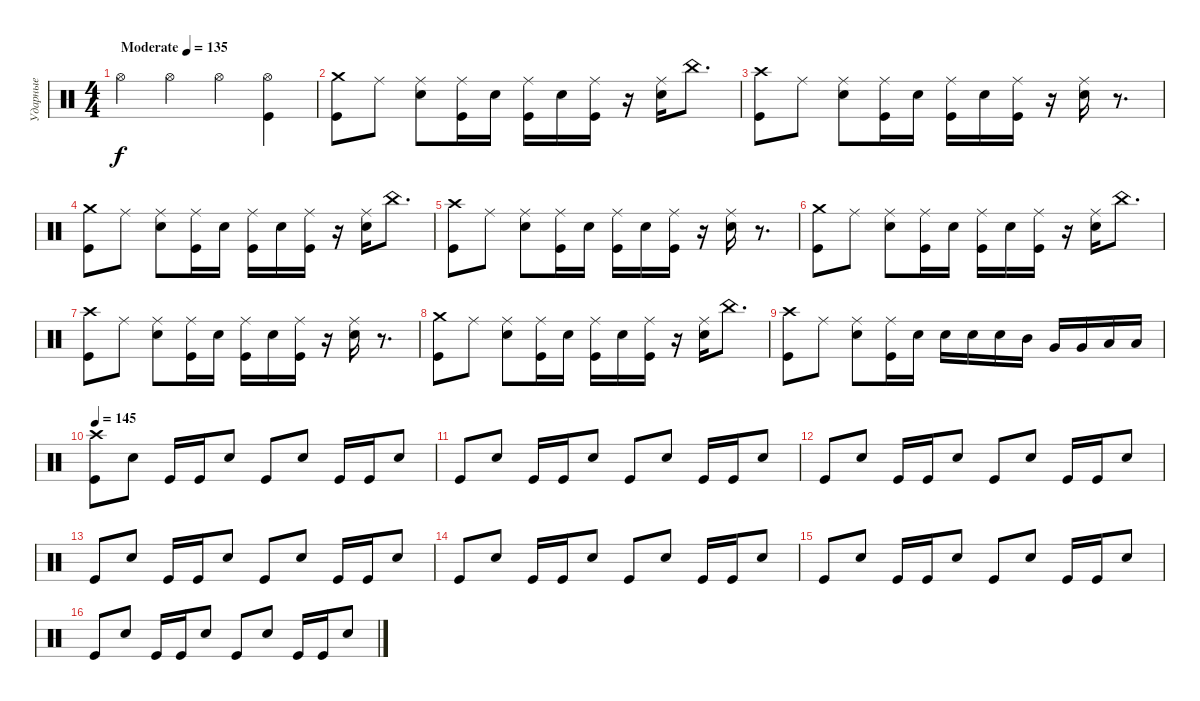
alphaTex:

\track ("Ударные" "Ударные") {instrument percussion}
\staff {score}
\articulation defaults
\ts (4 4)
\tempo (135 "Moderate")
\clef neutral
\ks c "Hi-Hat (open)".4{dy f} "Hi-Hat (open)".4 "Hi-Hat (open)".4
("Hi-Hat (open)" "Kick (hit)").4 |
("Crash medium (hit)" "Kick (hit)").8 "Ride (middle)".8 ("Ride (middle)" "Electric Snare (hit)").8 ("Kick (hit)" "Ride (middle)").16 "Electric Snare (hit)".16 ("Ride (middle)" "Kick (hit)").16 "Electric Snare (hit)".16 ("Kick (hit)" "Ride (middle)").16 r.16 ("Ride (middle)" "Electric Snare (hit)").16 "China (hit)".8{d} |
("Crash high (hit)" "Kick (hit)").8 "Ride (middle)".8 ("Ride (middle)" "Electric Snare (hit)").8 ("Kick (hit)" "Ride (middle)").16 "Electric Snare (hit)".16 ("Ride (middle)" "Kick (hit)").16 "Electric Snare (hit)".16 ("Kick (hit)" "Ride (middle)").16 r.16 ("Ride (middle)" "Electric Snare (hit)").16 r.8{d} |
("Crash medium (hit)" "Kick (hit)").8 "Ride (middle)".8 ("Ride (middle)" "Electric Snare (hit)").8 ("Kick (hit)" "Ride (middle)").16 "Electric Snare (hit)".16 ("Ride (middle)" "Kick (hit)").16 "Electric Snare (hit)".16 ("Kick (hit)" "Ride (middle)").16 r.16 ("Ride (middle)" "Electric Snare (hit)").16 "China (hit)".8{d} |
("Crash high (hit)" "Kick (hit)").8 "Ride (middle)".8 ("Ride (middle)" "Electric Snare (hit)").8 ("Kick (hit)" "Ride (middle)").16 "Electric Snare (hit)".16 ("Ride (middle)" "Kick (hit)").16 "Electric Snare (hit)".16 ("Kick (hit)" "Ride (middle)").16 r.16 ("Ride (middle)" "Electric Snare (hit)").16 r.8{d} |
("Crash medium (hit)" "Kick (hit)").8 "Ride (middle)".8 ("Ride (middle)" "Electric Snare (hit)").8 ("Kick (hit)" "Ride (middle)").16 "Electric Snare (hit)".16 ("Ride (middle)" "Kick (hit)").16 "Electric Snare (hit)".16 ("Kick (hit)" "Ride (middle)").16 r.16 ("Ride (middle)" "Electric Snare (hit)").16 "China (hit)".8{d} |
("Crash high (hit)" "Kick (hit)").8 "Ride (middle)".8 ("Ride (middle)" "Electric Snare (hit)").8 ("Kick (hit)" "Ride (middle)").16 "Electric Snare (hit)".16 ("Ride (middle)" "Kick (hit)").16 "Electric Snare (hit)".16 ("Kick (hit)" "Ride (middle)").16 r.16 ("Ride (middle)" "Electric Snare (hit)").16 r.8{d} |
("Crash medium (hit)" "Kick (hit)").8 "Ride (middle)".8 ("Ride (middle)" "Electric Snare (hit)").8 ("Kick (hit)" "Ride (middle)").16 "Electric Snare (hit)".16 ("Ride (middle)" "Kick (hit)").16 "Electric Snare (hit)".16 ("Kick (hit)" "Ride (middle)").16 r.16 ("Ride (middle)" "Electric Snare (hit)").16 "China (hit)".8{d} |
("Crash high (hit)" "Kick (hit)").8 "Ride (middle)".8 ("Ride (middle)" "Electric Snare (hit)").8 ("Kick (hit)" "Ride (middle)").16 "Electric Snare (hit)".16 "Electric Snare (hit)".16 "Electric Snare (hit)".16 "Electric Snare (hit)".16 "Mid Tom (hit)".16 "Very Low Tom (hit)".16 "Very Low Tom (hit)".16 "Low Floor Tom (hit)".16 "Low Floor Tom (hit)".16 |
\tempo 145
("Crash high (hit)" "Kick (hit)").8 "Electric Snare (hit)".8 "Kick (hit)".16 "Kick (hit)".16 "Electric Snare (hit)".8 "Kick (hit)".8 "Electric Snare (hit)".8 "Kick (hit)".16 "Kick (hit)".16 "Electric Snare (hit)".8 |
"Kick (hit)".8 "Electric Snare (hit)".8 "Kick (hit)".16 "Kick (hit)".16 "Electric Snare (hit)".8 "Kick (hit)".8 "Electric Snare (hit)".8 "Kick (hit)".16 "Kick (hit)".16 "Electric Snare (hit)".8 |
"Kick (hit)".8 "Electric Snare (hit)".8 "Kick (hit)".16 "Kick (hit)".16 "Electric Snare (hit)".8 "Kick (hit)".8 "Electric Snare (hit)".8 "Kick (hit)".16 "Kick (hit)".16 "Electric Snare (hit)".8 |
"Kick (hit)".8 "Electric Snare (hit)".8 "Kick (hit)".16 "Kick (hit)".16 "Electric Snare (hit)".8 "Kick (hit)".8 "Electric Snare (hit)".8 "Kick (hit)".16 "Kick (hit)".16 "Electric Snare (hit)".8 |
"Kick (hit)".8 "Electric Snare (hit)".8 "Kick (hit)".16 "Kick (hit)".16 "Electric Snare (hit)".8 "Kick (hit)".8 "Electric Snare (hit)".8 "Kick (hit)".16 "Kick (hit)".16 "Electric Snare (hit)".8 |
"Kick (hit)".8 "Electric Snare (hit)".8 "Kick (hit)".16 "Kick (hit)".16 "Electric Snare (hit)".8 "Kick (hit)".8 "Electric Snare (hit)".8 "Kick (hit)".16 "Kick (hit)".16 "Electric Snare (hit)".8 |
"Kick (hit)".8 "Electric Snare (hit)".8 "Kick (hit)".16 "Kick (hit)".16 "Electric Snare (hit)".8 "Kick (hit)".8 "Electric Snare (hit)".8 "Kick (hit)".16 "Kick (hit)".16 "Electric Snare (hit)".8
